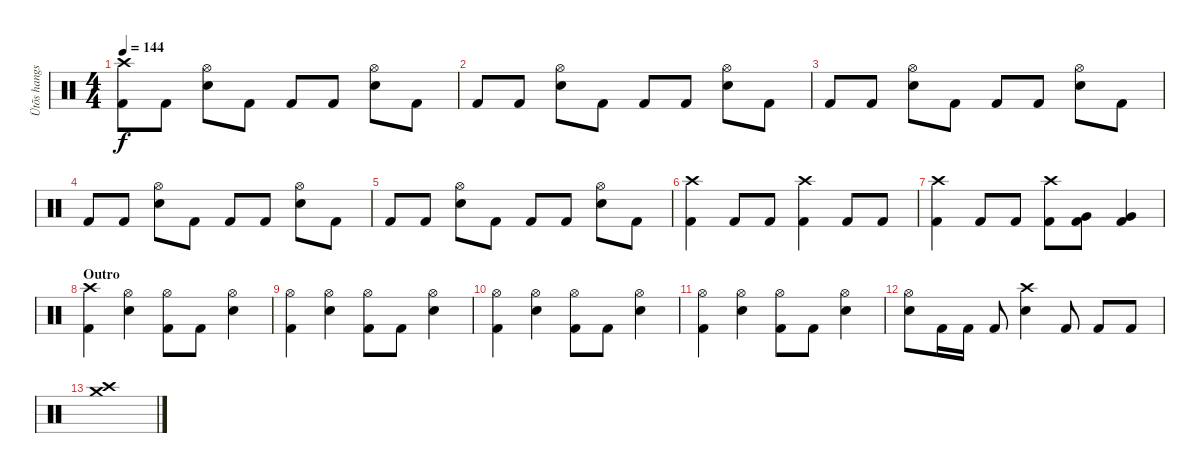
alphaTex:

\track ("Ütõs hangszer" "Ütõs hangs") {instrument percussion}
\staff {score}
\articulation defaults
\ts (4 4)
\tempo 144
\clef neutral
\ks c
("Crash high (hit)" "Kick (hit) 2").8{dy f} "Kick (hit) 2".8 ("Hi-Hat (open)" "Electric Snare (hit)").8 "Kick (hit) 2".8 "Kick (hit) 2".8 "Kick (hit) 2".8 ("Hi-Hat (open)" "Electric Snare (hit)").8 "Kick (hit) 2".8 |
"Kick (hit) 2".8 "Kick (hit) 2".8 ("Hi-Hat (open)" "Electric Snare (hit)").8 "Kick (hit) 2".8 "Kick (hit) 2".8 "Kick (hit) 2".8 ("Hi-Hat (open)" "Electric Snare (hit)").8 "Kick (hit) 2".8 |
"Kick (hit) 2".8 "Kick (hit) 2".8 ("Hi-Hat (open)" "Electric Snare (hit)").8 "Kick (hit) 2".8 "Kick (hit) 2".8 "Kick (hit) 2".8 ("Hi-Hat (open)" "Electric Snare (hit)").8 "Kick (hit) 2".8 |
"Kick (hit) 2".8 "Kick (hit) 2".8 ("Hi-Hat (open)" "Electric Snare (hit)").8 "Kick (hit) 2".8 "Kick (hit) 2".8 "Kick (hit) 2".8 ("Hi-Hat (open)" "Electric Snare (hit)").8 "Kick (hit) 2".8 |
"Kick (hit) 2".8 "Kick (hit) 2".8 ("Hi-Hat (open)" "Electric Snare (hit)").8 "Kick (hit) 2".8 "Kick (hit) 2".8 "Kick (hit) 2".8 ("Hi-Hat (open)" "Electric Snare (hit)").8 "Kick (hit) 2".8 |
("Crash high (hit)" "Kick (hit) 2").4 "Kick (hit) 2".8 "Kick (hit) 2".8 ("Crash high (hit)" "Kick (hit) 2").4 "Kick (hit) 2".8 "Kick (hit) 2".8 |
("Crash high (hit)" "Kick (hit) 2").4 "Kick (hit) 2".8 "Kick (hit) 2".8 ("Crash high (hit)" "Kick (hit) 2").8 ("Very Low Tom (hit)" "Kick (hit) 2").8 ("Very Low Tom (hit)" "Kick (hit) 2").4 |
\section ("" "Outro")
("Crash high (hit)" "Kick (hit) 2").4 ("Hi-Hat (open)" "Snare (hit) 2").4 ("Hi-Hat (open)" "Kick (hit) 2").8 "Kick (hit) 2".8 ("Hi-Hat (open)" "Snare (hit) 2").4 |
("Hi-Hat (open)" "Kick (hit) 2").4 ("Hi-Hat (open)" "Snare (hit) 2").4 ("Hi-Hat (open)" "Kick (hit) 2").8 "Kick (hit) 2".8 ("Hi-Hat (open)" "Snare (hit) 2").4 |
("Hi-Hat (open)" "Kick (hit) 2").4 ("Hi-Hat (open)" "Snare (hit) 2").4 ("Hi-Hat (open)" "Kick (hit) 2").8 "Kick (hit) 2".8 ("Hi-Hat (open)" "Snare (hit) 2").4 |
("Hi-Hat (open)" "Kick (hit) 2").4 ("Hi-Hat (open)" "Snare (hit) 2").4 ("Hi-Hat (open)" "Kick (hit) 2").8 "Kick (hit) 2".8 ("Hi-Hat (open)" "Snare (hit) 2").4 |
("Hi-Hat (open)" "Snare (hit) 2").8 "Kick (hit) 2".16 "Kick (hit) 2".16 "Kick (hit) 2".8 ("Crash high (hit)" "Snare (hit) 2").4 "Kick (hit) 2".8 "Kick (hit) 2".8 "Kick (hit) 2".8 |
("Crash high (hit)" "Crash medium (hit)").1
